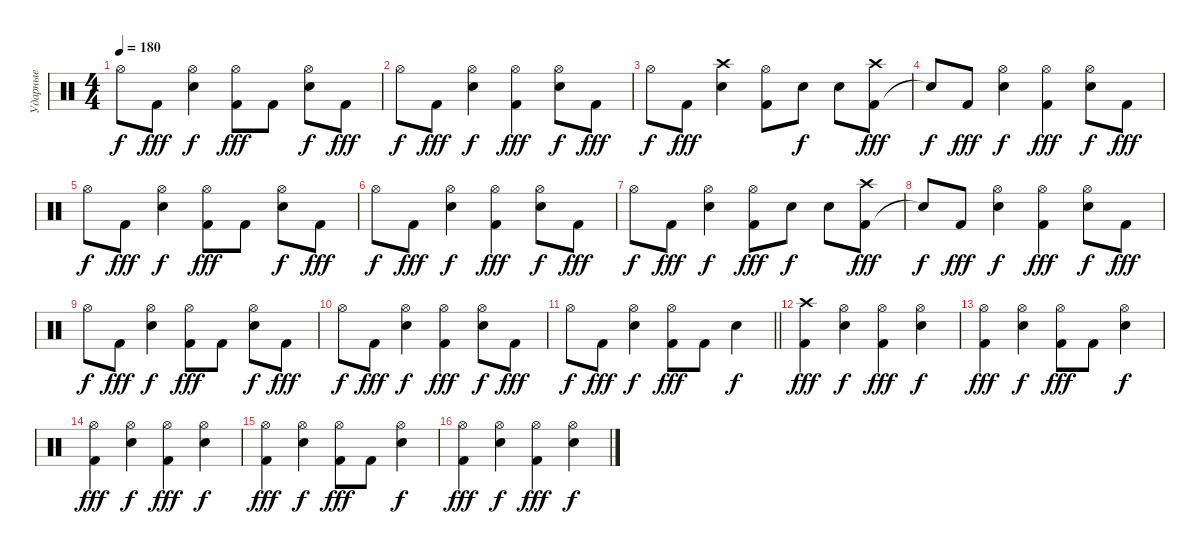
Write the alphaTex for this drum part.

\track ("Ударные" "Ударные") {instrument percussion}
\staff {score}
\articulation defaults
\ts (4 4)
\tempo 180
\clef neutral
\ks c "Hi-Hat (open)".8{dy f} "Kick (hit) 2".8{dy fff}
("Snare (hit) 2" "Hi-Hat (open)").4{dy f} ("Kick (hit) 2" "Hi-Hat (open)").8{dy fff} "Kick (hit) 2".8 ("Snare (hit) 2" "Hi-Hat (open)").8{dy f} "Kick (hit) 2".8{dy fff} |
"Hi-Hat (open)".8{dy f} "Kick (hit) 2".8{dy fff} ("Snare (hit) 2" "Hi-Hat (open)").4{dy f} ("Kick (hit) 2" "Hi-Hat (open)").4{dy fff} ("Snare (hit) 2" "Hi-Hat (open)").8{dy f} "Kick (hit) 2".8{dy fff} |
"Hi-Hat (open)".8{dy f} "Kick (hit) 2".8{dy fff} ("Snare (hit) 2" "Crash high (hit)").4 ("Kick (hit) 2" "Hi-Hat (open)").8 "Snare (hit) 2".8{dy f} "Snare (hit) 2".8 ("Kick (hit) 2" "Crash high (hit)").8{dy fff} |
"Snare (hit)"{t}.8{dy f} "Kick (hit) 2".8{dy fff} ("Snare (hit) 2" "Hi-Hat (open)").4{dy f} ("Kick (hit) 2" "Hi-Hat (open)").4{dy fff} ("Snare (hit) 2" "Hi-Hat (open)").8{dy f} "Kick (hit) 2".8{dy fff} |
"Hi-Hat (open)".8{dy f} "Kick (hit) 2".8{dy fff} ("Snare (hit) 2" "Hi-Hat (open)").4{dy f} ("Kick (hit) 2" "Hi-Hat (open)").8{dy fff} "Kick (hit) 2".8 ("Snare (hit) 2" "Hi-Hat (open)").8{dy f} "Kick (hit) 2".8{dy fff} |
"Hi-Hat (open)".8{dy f} "Kick (hit) 2".8{dy fff} ("Snare (hit) 2" "Hi-Hat (open)").4{dy f} ("Kick (hit) 2" "Hi-Hat (open)").4{dy fff} ("Snare (hit) 2" "Hi-Hat (open)").8{dy f} "Kick (hit) 2".8{dy fff} |
"Hi-Hat (open)".8{dy f} "Kick (hit) 2".8{dy fff} ("Snare (hit) 2" "Hi-Hat (open)").4{dy f} ("Kick (hit) 2" "Hi-Hat (open)").8{dy fff} "Snare (hit) 2".8{dy f} "Snare (hit) 2".8 ("Kick (hit) 2" "Crash high (hit)").8{dy fff} |
"Snare (hit)"{t}.8{dy f} "Kick (hit) 2".8{dy fff} ("Snare (hit) 2" "Hi-Hat (open)").4{dy f} ("Kick (hit) 2" "Hi-Hat (open)").4{dy fff} ("Snare (hit) 2" "Hi-Hat (open)").8{dy f} "Kick (hit) 2".8{dy fff} |
"Hi-Hat (open)".8{dy f} "Kick (hit) 2".8{dy fff} ("Snare (hit) 2" "Hi-Hat (open)").4{dy f} ("Kick (hit) 2" "Hi-Hat (open)").8{dy fff} "Kick (hit) 2".8 ("Snare (hit) 2" "Hi-Hat (open)").8{dy f} "Kick (hit) 2".8{dy fff} |
"Hi-Hat (open)".8{dy f} "Kick (hit) 2".8{dy fff} ("Snare (hit) 2" "Hi-Hat (open)").4{dy f} ("Kick (hit) 2" "Hi-Hat (open)").4{dy fff} ("Snare (hit) 2" "Hi-Hat (open)").8{dy f} "Kick (hit) 2".8{dy fff} |
\barLineRight lightlight "Hi-Hat (open)".8{dy f} "Kick (hit) 2".8{dy fff}
("Snare (hit) 2" "Hi-Hat (open)").4{dy f} ("Kick (hit) 2" "Hi-Hat (open)").8{dy fff} "Kick (hit) 2".8 "Snare (hit) 2".4{dy f} |
("Kick (hit) 2" "Crash high (hit)").4{dy fff} ("Snare (hit) 2" "Hi-Hat (open)").4{dy f} ("Kick (hit) 2" "Hi-Hat (open)").4{dy fff} ("Snare (hit) 2" "Hi-Hat (open)").4{dy f} |
("Kick (hit) 2" "Hi-Hat (open)").4{dy fff} ("Snare (hit) 2" "Hi-Hat (open)").4{dy f} ("Kick (hit) 2" "Hi-Hat (open)").8{dy fff} "Kick (hit) 2".8 ("Snare (hit) 2" "Hi-Hat (open)").4{dy f} |
("Kick (hit) 2" "Hi-Hat (open)").4{dy fff} ("Snare (hit) 2" "Hi-Hat (open)").4{dy f} ("Kick (hit) 2" "Hi-Hat (open)").4{dy fff} ("Snare (hit) 2" "Hi-Hat (open)").4{dy f} |
("Kick (hit) 2" "Hi-Hat (open)").4{dy fff} ("Snare (hit) 2" "Hi-Hat (open)").4{dy f} ("Kick (hit) 2" "Hi-Hat (open)").8{dy fff} "Kick (hit) 2".8 ("Snare (hit) 2" "Hi-Hat (open)").4{dy f} |
("Kick (hit) 2" "Hi-Hat (open)").4{dy fff} ("Snare (hit) 2" "Hi-Hat (open)").4{dy f} ("Kick (hit) 2" "Hi-Hat (open)").4{dy fff} ("Snare (hit) 2" "Hi-Hat (open)").4{dy f}
